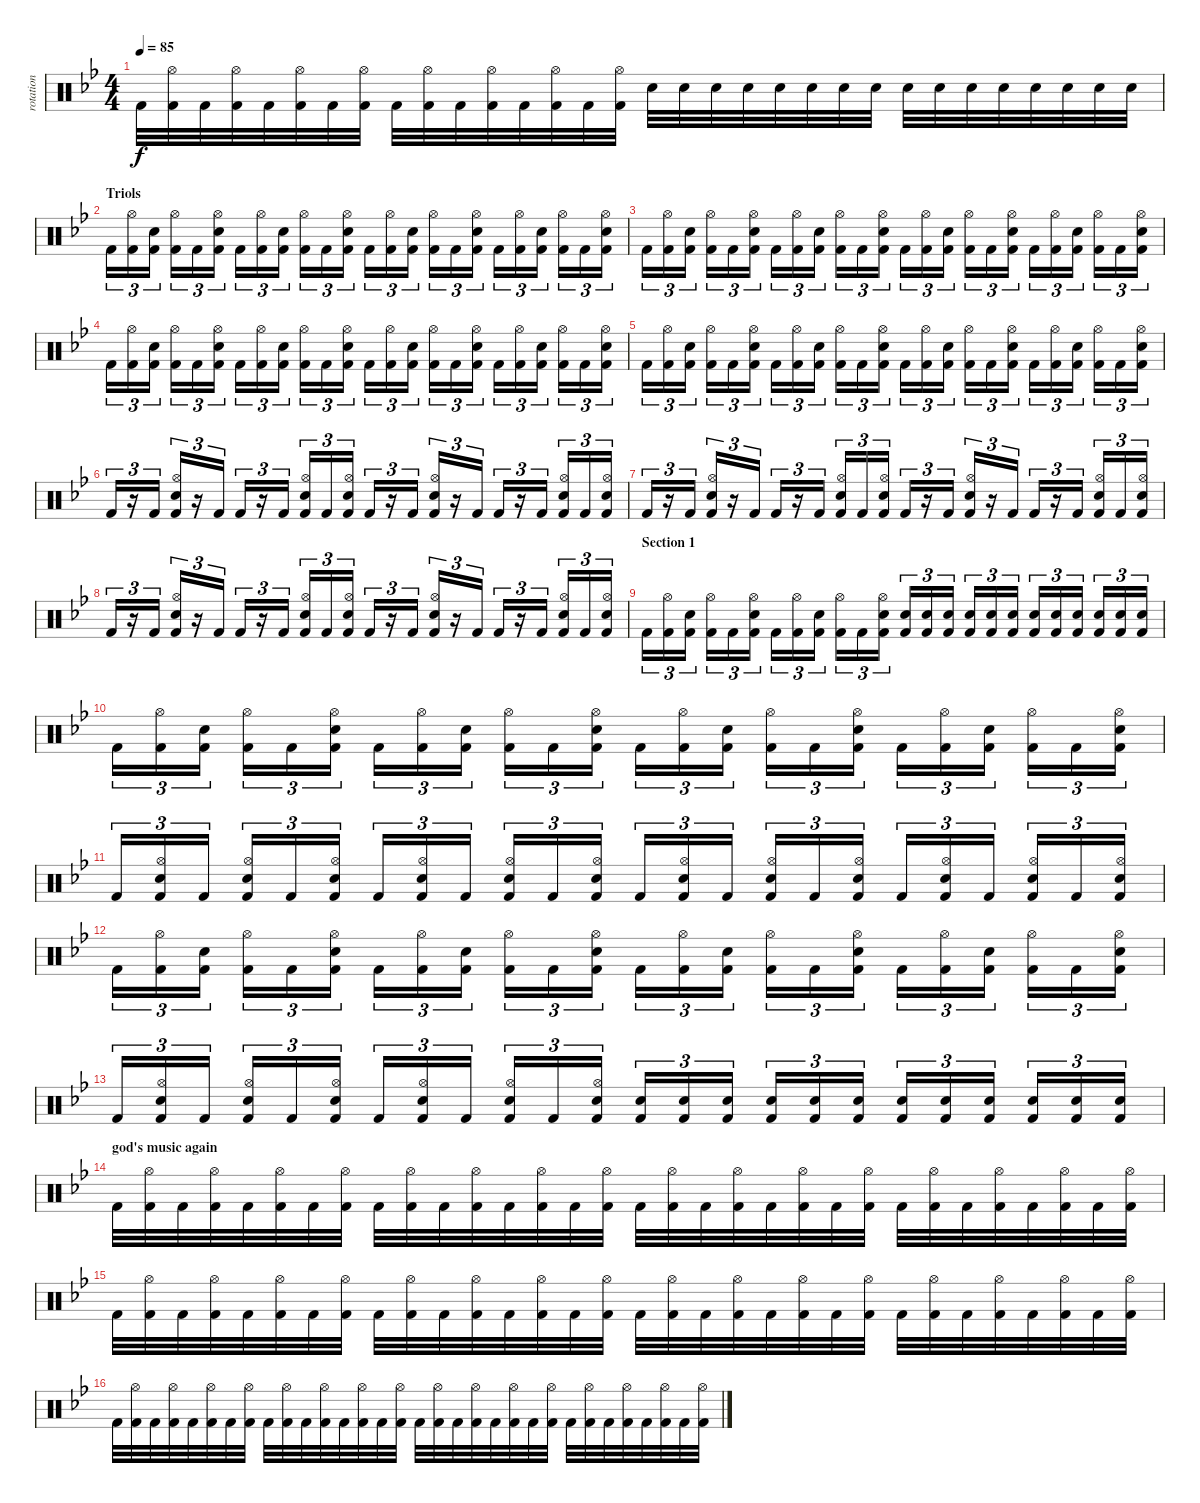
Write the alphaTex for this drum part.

\track ("rotation" "rotation") {instrument percussion}
\staff {score}
\articulation defaults
\ts (4 4)
\tempo 85
\clef neutral
\ks gminor "Kick (hit) 2".32{dy f}
("Hi-Hat (open)" "Kick (hit) 2").32 "Kick (hit) 2".32 ("Hi-Hat (open)" "Kick (hit) 2").32 "Kick (hit) 2".32 ("Hi-Hat (open)" "Kick (hit) 2").32 "Kick (hit) 2".32 ("Hi-Hat (open)" "Kick (hit) 2").32 "Kick (hit) 2".32 ("Hi-Hat (open)" "Kick (hit) 2").32 "Kick (hit) 2".32 ("Hi-Hat (open)" "Kick (hit) 2").32 "Kick (hit) 2".32 ("Hi-Hat (open)" "Kick (hit) 2").32 "Kick (hit) 2".32 ("Hi-Hat (open)" "Kick (hit) 2").32 "Electric Snare (hit)".32 "Electric Snare (hit)".32 "Electric Snare (hit)".32 "Electric Snare (hit)".32 "Electric Snare (hit)".32 "Electric Snare (hit)".32 "Electric Snare (hit)".32 "Electric Snare (hit)".32 "Snare (hit) 2".32 "Snare (hit) 2".32 "Snare (hit) 2".32 "Snare (hit) 2".32 "Snare (hit) 2".32 "Snare (hit) 2".32 "Snare (hit) 2".32 "Snare (hit) 2".32 |
\section ("" "Triols")
"Kick (hit) 2".16{tu (3 2)} ("Hi-Hat (open)" "Kick (hit) 2").16{tu (3 2)} ("Snare (hit) 2" "Kick (hit) 2").16{tu (3 2)} ("Hi-Hat (open)" "Kick (hit) 2").16{tu (3 2)} "Kick (hit) 2".16{tu (3 2)} ("Snare (hit) 2" "Hi-Hat (open)" "Kick (hit) 2").16{tu (3 2)} "Kick (hit) 2".16{tu (3 2)} ("Hi-Hat (open)" "Kick (hit) 2").16{tu (3 2)} ("Snare (hit) 2" "Kick (hit) 2").16{tu (3 2)} ("Hi-Hat (open)" "Kick (hit) 2").16{tu (3 2)} "Kick (hit) 2".16{tu (3 2)} ("Snare (hit) 2" "Hi-Hat (open)" "Kick (hit) 2").16{tu (3 2)} "Kick (hit) 2".16{tu (3 2)} ("Hi-Hat (open)" "Kick (hit) 2").16{tu (3 2)} ("Snare (hit) 2" "Kick (hit) 2").16{tu (3 2)} ("Hi-Hat (open)" "Kick (hit) 2").16{tu (3 2)} "Kick (hit) 2".16{tu (3 2)} ("Snare (hit) 2" "Hi-Hat (open)" "Kick (hit) 2").16{tu (3 2)} "Kick (hit) 2".16{tu (3 2)} ("Hi-Hat (open)" "Kick (hit) 2").16{tu (3 2)} ("Snare (hit) 2" "Kick (hit) 2").16{tu (3 2)} ("Hi-Hat (open)" "Kick (hit) 2").16{tu (3 2)} "Kick (hit) 2".16{tu (3 2)} ("Snare (hit) 2" "Hi-Hat (open)" "Kick (hit) 2").16{tu (3 2)} |
"Kick (hit) 2".16{tu (3 2)} ("Hi-Hat (open)" "Kick (hit) 2").16{tu (3 2)} ("Snare (hit) 2" "Kick (hit) 2").16{tu (3 2)} ("Hi-Hat (open)" "Kick (hit) 2").16{tu (3 2)} "Kick (hit) 2".16{tu (3 2)} ("Snare (hit) 2" "Hi-Hat (open)" "Kick (hit) 2").16{tu (3 2)} "Kick (hit) 2".16{tu (3 2)} ("Hi-Hat (open)" "Kick (hit) 2").16{tu (3 2)} ("Snare (hit) 2" "Kick (hit) 2").16{tu (3 2)} ("Hi-Hat (open)" "Kick (hit) 2").16{tu (3 2)} "Kick (hit) 2".16{tu (3 2)} ("Snare (hit) 2" "Hi-Hat (open)" "Kick (hit) 2").16{tu (3 2)} "Kick (hit) 2".16{tu (3 2)} ("Hi-Hat (open)" "Kick (hit) 2").16{tu (3 2)} ("Snare (hit) 2" "Kick (hit) 2").16{tu (3 2)} ("Hi-Hat (open)" "Kick (hit) 2").16{tu (3 2)} "Kick (hit) 2".16{tu (3 2)} ("Snare (hit) 2" "Hi-Hat (open)" "Kick (hit) 2").16{tu (3 2)} "Kick (hit) 2".16{tu (3 2)} ("Hi-Hat (open)" "Kick (hit) 2").16{tu (3 2)} ("Snare (hit) 2" "Kick (hit) 2").16{tu (3 2)} ("Hi-Hat (open)" "Kick (hit) 2").16{tu (3 2)} "Kick (hit) 2".16{tu (3 2)} ("Snare (hit) 2" "Hi-Hat (open)" "Kick (hit) 2").16{tu (3 2)} |
"Kick (hit) 2".16{tu (3 2)} ("Hi-Hat (open)" "Kick (hit) 2").16{tu (3 2)} ("Snare (hit) 2" "Kick (hit) 2").16{tu (3 2)} ("Hi-Hat (open)" "Kick (hit) 2").16{tu (3 2)} "Kick (hit) 2".16{tu (3 2)} ("Snare (hit) 2" "Hi-Hat (open)" "Kick (hit) 2").16{tu (3 2)} "Kick (hit) 2".16{tu (3 2)} ("Hi-Hat (open)" "Kick (hit) 2").16{tu (3 2)} ("Snare (hit) 2" "Kick (hit) 2").16{tu (3 2)} ("Hi-Hat (open)" "Kick (hit) 2").16{tu (3 2)} "Kick (hit) 2".16{tu (3 2)} ("Snare (hit) 2" "Hi-Hat (open)" "Kick (hit) 2").16{tu (3 2)} "Kick (hit) 2".16{tu (3 2)} ("Hi-Hat (open)" "Kick (hit) 2").16{tu (3 2)} ("Snare (hit) 2" "Kick (hit) 2").16{tu (3 2)} ("Hi-Hat (open)" "Kick (hit) 2").16{tu (3 2)} "Kick (hit) 2".16{tu (3 2)} ("Snare (hit) 2" "Hi-Hat (open)" "Kick (hit) 2").16{tu (3 2)} "Kick (hit) 2".16{tu (3 2)} ("Hi-Hat (open)" "Kick (hit) 2").16{tu (3 2)} ("Snare (hit) 2" "Kick (hit) 2").16{tu (3 2)} ("Hi-Hat (open)" "Kick (hit) 2").16{tu (3 2)} "Kick (hit) 2".16{tu (3 2)} ("Snare (hit) 2" "Hi-Hat (open)" "Kick (hit) 2").16{tu (3 2)} |
"Kick (hit) 2".16{tu (3 2)} ("Hi-Hat (open)" "Kick (hit) 2").16{tu (3 2)} ("Snare (hit) 2" "Kick (hit) 2").16{tu (3 2)} ("Hi-Hat (open)" "Kick (hit) 2").16{tu (3 2)} "Kick (hit) 2".16{tu (3 2)} ("Snare (hit) 2" "Hi-Hat (open)" "Kick (hit) 2").16{tu (3 2)} "Kick (hit) 2".16{tu (3 2)} ("Hi-Hat (open)" "Kick (hit) 2").16{tu (3 2)} ("Snare (hit) 2" "Kick (hit) 2").16{tu (3 2)} ("Hi-Hat (open)" "Kick (hit) 2").16{tu (3 2)} "Kick (hit) 2".16{tu (3 2)} ("Snare (hit) 2" "Hi-Hat (open)" "Kick (hit) 2").16{tu (3 2)} "Kick (hit) 2".16{tu (3 2)} ("Hi-Hat (open)" "Kick (hit) 2").16{tu (3 2)} ("Snare (hit) 2" "Kick (hit) 2").16{tu (3 2)} ("Hi-Hat (open)" "Kick (hit) 2").16{tu (3 2)} "Kick (hit) 2".16{tu (3 2)} ("Snare (hit) 2" "Hi-Hat (open)" "Kick (hit) 2").16{tu (3 2)} "Kick (hit) 2".16{tu (3 2)} ("Hi-Hat (open)" "Kick (hit) 2").16{tu (3 2)} ("Snare (hit) 2" "Kick (hit) 2").16{tu (3 2)} ("Hi-Hat (open)" "Kick (hit) 2").16{tu (3 2)} "Kick (hit) 2".16{tu (3 2)} ("Snare (hit) 2" "Hi-Hat (open)" "Kick (hit) 2").16{tu (3 2)} |
"Kick (hit) 2".16{tu (3 2)} r.16{tu (3 2)} "Kick (hit) 2".16{tu (3 2)} ("Hi-Hat (open)" "Snare (hit) 2" "Kick (hit) 2").16{tu (3 2)} r.16{tu (3 2)} "Kick (hit) 2".16{tu (3 2)} "Kick (hit) 2".16{tu (3 2)} r.16{tu (3 2)} "Kick (hit) 2".16{tu (3 2)} ("Hi-Hat (open)" "Snare (hit) 2" "Kick (hit) 2").16{tu (3 2)} "Kick (hit) 2".16{tu (3 2)} ("Hi-Hat (open)" "Snare (hit) 2" "Kick (hit) 2").16{tu (3 2)} "Kick (hit) 2".16{tu (3 2)} r.16{tu (3 2)} "Kick (hit) 2".16{tu (3 2)} ("Hi-Hat (open)" "Snare (hit) 2" "Kick (hit) 2").16{tu (3 2)} r.16{tu (3 2)} "Kick (hit) 2".16{tu (3 2)} "Kick (hit) 2".16{tu (3 2)} r.16{tu (3 2)} "Kick (hit) 2".16{tu (3 2)} ("Hi-Hat (open)" "Snare (hit) 2" "Kick (hit) 2").16{tu (3 2)} "Kick (hit) 2".16{tu (3 2)} ("Hi-Hat (open)" "Snare (hit) 2" "Kick (hit) 2").16{tu (3 2)} |
"Kick (hit) 2".16{tu (3 2)} r.16{tu (3 2)} "Kick (hit) 2".16{tu (3 2)} ("Hi-Hat (open)" "Snare (hit) 2" "Kick (hit) 2").16{tu (3 2)} r.16{tu (3 2)} "Kick (hit) 2".16{tu (3 2)} "Kick (hit) 2".16{tu (3 2)} r.16{tu (3 2)} "Kick (hit) 2".16{tu (3 2)} ("Hi-Hat (open)" "Snare (hit) 2" "Kick (hit) 2").16{tu (3 2)} "Kick (hit) 2".16{tu (3 2)} ("Hi-Hat (open)" "Snare (hit) 2" "Kick (hit) 2").16{tu (3 2)} "Kick (hit) 2".16{tu (3 2)} r.16{tu (3 2)} "Kick (hit) 2".16{tu (3 2)} ("Hi-Hat (open)" "Snare (hit) 2" "Kick (hit) 2").16{tu (3 2)} r.16{tu (3 2)} "Kick (hit) 2".16{tu (3 2)} "Kick (hit) 2".16{tu (3 2)} r.16{tu (3 2)} "Kick (hit) 2".16{tu (3 2)} ("Hi-Hat (open)" "Snare (hit) 2" "Kick (hit) 2").16{tu (3 2)} "Kick (hit) 2".16{tu (3 2)} ("Hi-Hat (open)" "Snare (hit) 2" "Kick (hit) 2").16{tu (3 2)} |
"Kick (hit) 2".16{tu (3 2)} r.16{tu (3 2)} "Kick (hit) 2".16{tu (3 2)} ("Hi-Hat (open)" "Snare (hit) 2" "Kick (hit) 2").16{tu (3 2)} r.16{tu (3 2)} "Kick (hit) 2".16{tu (3 2)} "Kick (hit) 2".16{tu (3 2)} r.16{tu (3 2)} "Kick (hit) 2".16{tu (3 2)} ("Hi-Hat (open)" "Snare (hit) 2" "Kick (hit) 2").16{tu (3 2)} "Kick (hit) 2".16{tu (3 2)} ("Hi-Hat (open)" "Snare (hit) 2" "Kick (hit) 2").16{tu (3 2)} "Kick (hit) 2".16{tu (3 2)} r.16{tu (3 2)} "Kick (hit) 2".16{tu (3 2)} ("Hi-Hat (open)" "Snare (hit) 2" "Kick (hit) 2").16{tu (3 2)} r.16{tu (3 2)} "Kick (hit) 2".16{tu (3 2)} "Kick (hit) 2".16{tu (3 2)} r.16{tu (3 2)} "Kick (hit) 2".16{tu (3 2)} ("Hi-Hat (open)" "Snare (hit) 2" "Kick (hit) 2").16{tu (3 2)} "Kick (hit) 2".16{tu (3 2)} ("Hi-Hat (open)" "Snare (hit) 2" "Kick (hit) 2").16{tu (3 2)} |
\section ("" "Section 1")
"Kick (hit) 2".16{tu (3 2)} ("Hi-Hat (open)" "Kick (hit) 2").16{tu (3 2)} ("Snare (hit) 2" "Kick (hit) 2").16{tu (3 2)} ("Hi-Hat (open)" "Kick (hit) 2").16{tu (3 2)} "Kick (hit) 2".16{tu (3 2)} ("Snare (hit) 2" "Hi-Hat (open)" "Kick (hit) 2").16{tu (3 2)} "Kick (hit) 2".16{tu (3 2)} ("Hi-Hat (open)" "Kick (hit) 2").16{tu (3 2)} ("Snare (hit) 2" "Kick (hit) 2").16{tu (3 2)} ("Hi-Hat (open)" "Kick (hit) 2").16{tu (3 2)} "Kick (hit) 2".16{tu (3 2)} ("Snare (hit) 2" "Hi-Hat (open)" "Kick (hit) 2").16{tu (3 2)} ("Snare (hit) 2" "Kick (hit) 2").16{tu (3 2)} ("Snare (hit) 2" "Kick (hit) 2").16{tu (3 2)} ("Snare (hit) 2" "Kick (hit) 2").16{tu (3 2)} ("Snare (hit) 2" "Kick (hit) 2").16{tu (3 2)} ("Snare (hit) 2" "Kick (hit) 2").16{tu (3 2)} ("Snare (hit) 2" "Kick (hit) 2").16{tu (3 2)} ("Snare (hit) 2" "Kick (hit) 2").16{tu (3 2)} ("Snare (hit) 2" "Kick (hit) 2").16{tu (3 2)} ("Snare (hit) 2" "Kick (hit) 2").16{tu (3 2)} ("Snare (hit) 2" "Kick (hit) 2").16{tu (3 2)} ("Snare (hit) 2" "Kick (hit) 2").16{tu (3 2)} ("Snare (hit) 2" "Kick (hit) 2").16{tu (3 2)} |
"Kick (hit) 2".16{tu (3 2)} ("Hi-Hat (open)" "Kick (hit) 2").16{tu (3 2)} ("Snare (hit) 2" "Kick (hit) 2").16{tu (3 2)} ("Hi-Hat (open)" "Kick (hit) 2").16{tu (3 2)} "Kick (hit) 2".16{tu (3 2)} ("Snare (hit) 2" "Hi-Hat (open)" "Kick (hit) 2").16{tu (3 2)} "Kick (hit) 2".16{tu (3 2)} ("Hi-Hat (open)" "Kick (hit) 2").16{tu (3 2)} ("Snare (hit) 2" "Kick (hit) 2").16{tu (3 2)} ("Hi-Hat (open)" "Kick (hit) 2").16{tu (3 2)} "Kick (hit) 2".16{tu (3 2)} ("Snare (hit) 2" "Hi-Hat (open)" "Kick (hit) 2").16{tu (3 2)} "Kick (hit) 2".16{tu (3 2)} ("Hi-Hat (open)" "Kick (hit) 2").16{tu (3 2)} ("Snare (hit) 2" "Kick (hit) 2").16{tu (3 2)} ("Hi-Hat (open)" "Kick (hit) 2").16{tu (3 2)} "Kick (hit) 2".16{tu (3 2)} ("Snare (hit) 2" "Hi-Hat (open)" "Kick (hit) 2").16{tu (3 2)} "Kick (hit) 2".16{tu (3 2)} ("Hi-Hat (open)" "Kick (hit) 2").16{tu (3 2)} ("Snare (hit) 2" "Kick (hit) 2").16{tu (3 2)} ("Hi-Hat (open)" "Kick (hit) 2").16{tu (3 2)} "Kick (hit) 2".16{tu (3 2)} ("Snare (hit) 2" "Hi-Hat (open)" "Kick (hit) 2").16{tu (3 2)} |
"Kick (hit) 2".16{tu (3 2)} ("Snare (hit) 2" "Hi-Hat (open)" "Kick (hit) 2").16{tu (3 2)} "Kick (hit) 2".16{tu (3 2)} ("Snare (hit) 2" "Hi-Hat (open)" "Kick (hit) 2").16{tu (3 2)} "Kick (hit) 2".16{tu (3 2)} ("Snare (hit) 2" "Hi-Hat (open)" "Kick (hit) 2").16{tu (3 2)} "Kick (hit) 2".16{tu (3 2)} ("Snare (hit) 2" "Hi-Hat (open)" "Kick (hit) 2").16{tu (3 2)} "Kick (hit) 2".16{tu (3 2)} ("Snare (hit) 2" "Hi-Hat (open)" "Kick (hit) 2").16{tu (3 2)} "Kick (hit) 2".16{tu (3 2)} ("Snare (hit) 2" "Hi-Hat (open)" "Kick (hit) 2").16{tu (3 2)} "Kick (hit) 2".16{tu (3 2)} ("Snare (hit) 2" "Hi-Hat (open)" "Kick (hit) 2").16{tu (3 2)} "Kick (hit) 2".16{tu (3 2)} ("Snare (hit) 2" "Hi-Hat (open)" "Kick (hit) 2").16{tu (3 2)} "Kick (hit) 2".16{tu (3 2)} ("Snare (hit) 2" "Hi-Hat (open)" "Kick (hit) 2").16{tu (3 2)} "Kick (hit) 2".16{tu (3 2)} ("Snare (hit) 2" "Hi-Hat (open)" "Kick (hit) 2").16{tu (3 2)} "Kick (hit) 2".16{tu (3 2)} ("Snare (hit) 2" "Hi-Hat (open)" "Kick (hit) 2").16{tu (3 2)} "Kick (hit) 2".16{tu (3 2)} ("Snare (hit) 2" "Hi-Hat (open)" "Kick (hit) 2").16{tu (3 2)} |
"Kick (hit) 2".16{tu (3 2)} ("Hi-Hat (open)" "Kick (hit) 2").16{tu (3 2)} ("Snare (hit) 2" "Kick (hit) 2").16{tu (3 2)} ("Hi-Hat (open)" "Kick (hit) 2").16{tu (3 2)} "Kick (hit) 2".16{tu (3 2)} ("Snare (hit) 2" "Hi-Hat (open)" "Kick (hit) 2").16{tu (3 2)} "Kick (hit) 2".16{tu (3 2)} ("Hi-Hat (open)" "Kick (hit) 2").16{tu (3 2)} ("Snare (hit) 2" "Kick (hit) 2").16{tu (3 2)} ("Hi-Hat (open)" "Kick (hit) 2").16{tu (3 2)} "Kick (hit) 2".16{tu (3 2)} ("Snare (hit) 2" "Hi-Hat (open)" "Kick (hit) 2").16{tu (3 2)} "Kick (hit) 2".16{tu (3 2)} ("Hi-Hat (open)" "Kick (hit) 2").16{tu (3 2)} ("Snare (hit) 2" "Kick (hit) 2").16{tu (3 2)} ("Hi-Hat (open)" "Kick (hit) 2").16{tu (3 2)} "Kick (hit) 2".16{tu (3 2)} ("Snare (hit) 2" "Hi-Hat (open)" "Kick (hit) 2").16{tu (3 2)} "Kick (hit) 2".16{tu (3 2)} ("Hi-Hat (open)" "Kick (hit) 2").16{tu (3 2)} ("Snare (hit) 2" "Kick (hit) 2").16{tu (3 2)} ("Hi-Hat (open)" "Kick (hit) 2").16{tu (3 2)} "Kick (hit) 2".16{tu (3 2)} ("Snare (hit) 2" "Hi-Hat (open)" "Kick (hit) 2").16{tu (3 2)} |
"Kick (hit) 2".16{tu (3 2)} ("Snare (hit) 2" "Hi-Hat (open)" "Kick (hit) 2").16{tu (3 2)} "Kick (hit) 2".16{tu (3 2)} ("Snare (hit) 2" "Hi-Hat (open)" "Kick (hit) 2").16{tu (3 2)} "Kick (hit) 2".16{tu (3 2)} ("Snare (hit) 2" "Hi-Hat (open)" "Kick (hit) 2").16{tu (3 2)} "Kick (hit) 2".16{tu (3 2)} ("Snare (hit) 2" "Hi-Hat (open)" "Kick (hit) 2").16{tu (3 2)} "Kick (hit) 2".16{tu (3 2)} ("Snare (hit) 2" "Hi-Hat (open)" "Kick (hit) 2").16{tu (3 2)} "Kick (hit) 2".16{tu (3 2)} ("Snare (hit) 2" "Hi-Hat (open)" "Kick (hit) 2").16{tu (3 2)} ("Snare (hit) 2" "Kick (hit) 2").16{tu (3 2)} ("Snare (hit) 2" "Kick (hit) 2").16{tu (3 2)} ("Snare (hit) 2" "Kick (hit) 2").16{tu (3 2)} ("Snare (hit) 2" "Kick (hit) 2").16{tu (3 2)} ("Snare (hit) 2" "Kick (hit) 2").16{tu (3 2)} ("Snare (hit) 2" "Kick (hit) 2").16{tu (3 2)} ("Snare (hit) 2" "Kick (hit) 2").16{tu (3 2)} ("Snare (hit) 2" "Kick (hit) 2").16{tu (3 2)} ("Snare (hit) 2" "Kick (hit) 2").16{tu (3 2)} ("Snare (hit) 2" "Kick (hit) 2").16{tu (3 2)} ("Snare (hit) 2" "Kick (hit) 2").16{tu (3 2)} ("Snare (hit) 2" "Kick (hit) 2").16{tu (3 2)} |
\section ("" "god's music again")
"Kick (hit) 2".32 ("Hi-Hat (open)" "Kick (hit) 2").32 "Kick (hit) 2".32 ("Hi-Hat (open)" "Kick (hit) 2").32 "Kick (hit) 2".32 ("Hi-Hat (open)" "Kick (hit) 2").32 "Kick (hit) 2".32 ("Hi-Hat (open)" "Kick (hit) 2").32 "Kick (hit) 2".32 ("Hi-Hat (open)" "Kick (hit) 2").32 "Kick (hit) 2".32 ("Hi-Hat (open)" "Kick (hit) 2").32 "Kick (hit) 2".32 ("Hi-Hat (open)" "Kick (hit) 2").32 "Kick (hit) 2".32 ("Hi-Hat (open)" "Kick (hit) 2").32 "Kick (hit) 2".32 ("Hi-Hat (open)" "Kick (hit) 2").32 "Kick (hit) 2".32 ("Hi-Hat (open)" "Kick (hit) 2").32 "Kick (hit) 2".32 ("Hi-Hat (open)" "Kick (hit) 2").32 "Kick (hit) 2".32 ("Hi-Hat (open)" "Kick (hit) 2").32 "Kick (hit) 2".32 ("Hi-Hat (open)" "Kick (hit) 2").32 "Kick (hit) 2".32 ("Hi-Hat (open)" "Kick (hit) 2").32 "Kick (hit) 2".32 ("Hi-Hat (open)" "Kick (hit) 2").32 "Kick (hit) 2".32 ("Hi-Hat (open)" "Kick (hit) 2").32 |
"Kick (hit) 2".32 ("Hi-Hat (open)" "Kick (hit) 2").32 "Kick (hit) 2".32 ("Hi-Hat (open)" "Kick (hit) 2").32 "Kick (hit) 2".32 ("Hi-Hat (open)" "Kick (hit) 2").32 "Kick (hit) 2".32 ("Hi-Hat (open)" "Kick (hit) 2").32 "Kick (hit) 2".32 ("Hi-Hat (open)" "Kick (hit) 2").32 "Kick (hit) 2".32 ("Hi-Hat (open)" "Kick (hit) 2").32 "Kick (hit) 2".32 ("Hi-Hat (open)" "Kick (hit) 2").32 "Kick (hit) 2".32 ("Hi-Hat (open)" "Kick (hit) 2").32 "Kick (hit) 2".32 ("Hi-Hat (open)" "Kick (hit) 2").32 "Kick (hit) 2".32 ("Hi-Hat (open)" "Kick (hit) 2").32 "Kick (hit) 2".32 ("Hi-Hat (open)" "Kick (hit) 2").32 "Kick (hit) 2".32 ("Hi-Hat (open)" "Kick (hit) 2").32 "Kick (hit) 2".32 ("Hi-Hat (open)" "Kick (hit) 2").32 "Kick (hit) 2".32 ("Hi-Hat (open)" "Kick (hit) 2").32 "Kick (hit) 2".32 ("Hi-Hat (open)" "Kick (hit) 2").32 "Kick (hit) 2".32 ("Hi-Hat (open)" "Kick (hit) 2").32 |
"Kick (hit) 2".32 ("Hi-Hat (open)" "Kick (hit) 2").32 "Kick (hit) 2".32 ("Hi-Hat (open)" "Kick (hit) 2").32 "Kick (hit) 2".32 ("Hi-Hat (open)" "Kick (hit) 2").32 "Kick (hit) 2".32 ("Hi-Hat (open)" "Kick (hit) 2").32 "Kick (hit) 2".32 ("Hi-Hat (open)" "Kick (hit) 2").32 "Kick (hit) 2".32 ("Hi-Hat (open)" "Kick (hit) 2").32 "Kick (hit) 2".32 ("Hi-Hat (open)" "Kick (hit) 2").32 "Kick (hit) 2".32 ("Hi-Hat (open)" "Kick (hit) 2").32 "Kick (hit) 2".32 ("Hi-Hat (open)" "Kick (hit) 2").32 "Kick (hit) 2".32 ("Hi-Hat (open)" "Kick (hit) 2").32 "Kick (hit) 2".32 ("Hi-Hat (open)" "Kick (hit) 2").32 "Kick (hit) 2".32 ("Hi-Hat (open)" "Kick (hit) 2").32 "Kick (hit) 2".32 ("Hi-Hat (open)" "Kick (hit) 2").32 "Kick (hit) 2".32 ("Hi-Hat (open)" "Kick (hit) 2").32 "Kick (hit) 2".32 ("Hi-Hat (open)" "Kick (hit) 2").32 "Kick (hit) 2".32 ("Hi-Hat (open)" "Kick (hit) 2").32
